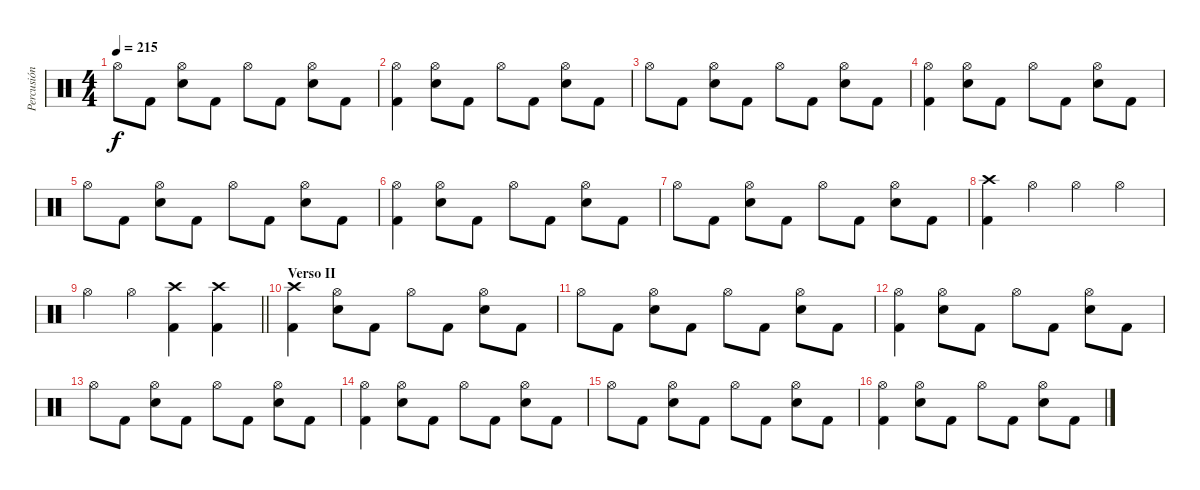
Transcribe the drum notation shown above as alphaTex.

\track ("Percusión" "Percusión") {instrument percussion}
\staff {score}
\articulation defaults
\ts (4 4)
\tempo 215
\clef neutral
\ks c "Hi-Hat (open)".8{dy f} "Kick (hit) 2".8
("Hi-Hat (open)" "Electric Snare (hit)").8 "Kick (hit) 2".8 "Hi-Hat (open)".8 "Kick (hit) 2".8 ("Hi-Hat (open)" "Electric Snare (hit)").8 "Kick (hit) 2".8 |
("Hi-Hat (open)" "Kick (hit) 2").4 ("Hi-Hat (open)" "Electric Snare (hit)").8 "Kick (hit) 2".8 "Hi-Hat (open)".8 "Kick (hit) 2".8 ("Hi-Hat (open)" "Electric Snare (hit)").8 "Kick (hit) 2".8 |
"Hi-Hat (open)".8 "Kick (hit) 2".8 ("Hi-Hat (open)" "Electric Snare (hit)").8 "Kick (hit) 2".8 "Hi-Hat (open)".8 "Kick (hit) 2".8 ("Hi-Hat (open)" "Electric Snare (hit)").8 "Kick (hit) 2".8 |
("Hi-Hat (open)" "Kick (hit) 2").4 ("Hi-Hat (open)" "Electric Snare (hit)").8 "Kick (hit) 2".8 "Hi-Hat (open)".8 "Kick (hit) 2".8 ("Hi-Hat (open)" "Electric Snare (hit)").8 "Kick (hit) 2".8 |
"Hi-Hat (open)".8 "Kick (hit) 2".8 ("Hi-Hat (open)" "Electric Snare (hit)").8 "Kick (hit) 2".8 "Hi-Hat (open)".8 "Kick (hit) 2".8 ("Hi-Hat (open)" "Electric Snare (hit)").8 "Kick (hit) 2".8 |
("Hi-Hat (open)" "Kick (hit) 2").4 ("Hi-Hat (open)" "Electric Snare (hit)").8 "Kick (hit) 2".8 "Hi-Hat (open)".8 "Kick (hit) 2".8 ("Hi-Hat (open)" "Electric Snare (hit)").8 "Kick (hit) 2".8 |
"Hi-Hat (open)".8 "Kick (hit) 2".8 ("Hi-Hat (open)" "Electric Snare (hit)").8 "Kick (hit) 2".8 "Hi-Hat (open)".8 "Kick (hit) 2".8 ("Hi-Hat (open)" "Electric Snare (hit)").8 "Kick (hit) 2".8 |
("Crash high (hit)" "Kick (hit) 2").4 "Hi-Hat (open)".4 "Hi-Hat (open)".4 "Hi-Hat (open)".4 |
\barLineRight lightlight "Hi-Hat (open)".4 "Hi-Hat (open)".4
("Crash high (hit)" "Kick (hit) 2").4 ("Crash high (hit)" "Kick (hit) 2").4 |
\section ("" "Verso II")
("Crash high (hit)" "Kick (hit) 2").4 ("Hi-Hat (open)" "Electric Snare (hit)").8 "Kick (hit) 2".8 "Hi-Hat (open)".8 "Kick (hit) 2".8 ("Hi-Hat (open)" "Electric Snare (hit)").8 "Kick (hit) 2".8 |
"Hi-Hat (open)".8 "Kick (hit) 2".8 ("Hi-Hat (open)" "Electric Snare (hit)").8 "Kick (hit) 2".8 "Hi-Hat (open)".8 "Kick (hit) 2".8 ("Hi-Hat (open)" "Electric Snare (hit)").8 "Kick (hit) 2".8 |
("Hi-Hat (open)" "Kick (hit) 2").4 ("Hi-Hat (open)" "Electric Snare (hit)").8 "Kick (hit) 2".8 "Hi-Hat (open)".8 "Kick (hit) 2".8 ("Hi-Hat (open)" "Electric Snare (hit)").8 "Kick (hit) 2".8 |
"Hi-Hat (open)".8 "Kick (hit) 2".8 ("Hi-Hat (open)" "Electric Snare (hit)").8 "Kick (hit) 2".8 "Hi-Hat (open)".8 "Kick (hit) 2".8 ("Hi-Hat (open)" "Electric Snare (hit)").8 "Kick (hit) 2".8 |
("Hi-Hat (open)" "Kick (hit) 2").4 ("Hi-Hat (open)" "Electric Snare (hit)").8 "Kick (hit) 2".8 "Hi-Hat (open)".8 "Kick (hit) 2".8 ("Hi-Hat (open)" "Electric Snare (hit)").8 "Kick (hit) 2".8 |
"Hi-Hat (open)".8 "Kick (hit) 2".8 ("Hi-Hat (open)" "Electric Snare (hit)").8 "Kick (hit) 2".8 "Hi-Hat (open)".8 "Kick (hit) 2".8 ("Hi-Hat (open)" "Electric Snare (hit)").8 "Kick (hit) 2".8 |
("Hi-Hat (open)" "Kick (hit) 2").4 ("Hi-Hat (open)" "Electric Snare (hit)").8 "Kick (hit) 2".8 "Hi-Hat (open)".8 "Kick (hit) 2".8 ("Hi-Hat (open)" "Electric Snare (hit)").8 "Kick (hit) 2".8
